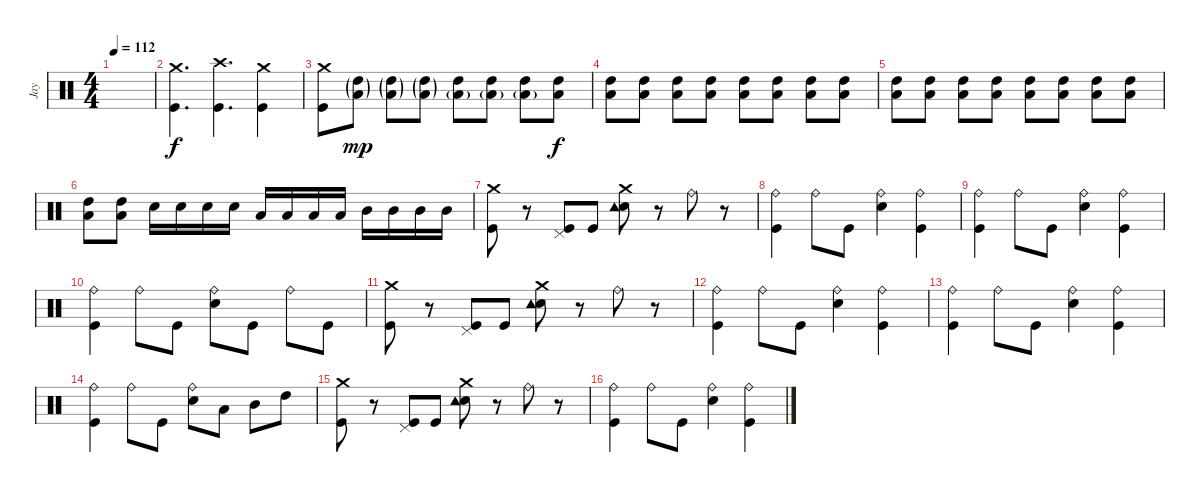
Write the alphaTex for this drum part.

\track ("Jay" "Jay") {instrument percussion}
\staff {score}
\articulation defaults
\ts (4 4)
\tempo 112
\clef neutral
\ks c
|
("Crash medium (hit)" "Kick (hit)").4{d} ("Crash high (hit)" "Kick (hit)").4{d} ("Crash medium (hit)" "Kick (hit)").4 |
("Crash medium (hit)" "Kick (hit)").8 ("High Tom (hit)"{g} "Low Tom (hit)"{g}).8{dy mp} ("High Tom (hit)"{g} "Low Tom (hit)"{g}).8 ("High Tom (hit)"{g} "Low Tom (hit)"{g}).8 ("High Tom (hit)" "Low Tom (hit)"{g}).8 ("High Tom (hit)" "Low Tom (hit)"{g}).8 ("High Tom (hit)" "Low Tom (hit)"{g}).8 ("High Tom (hit)" "Low Tom (hit)").8{dy f} |
("High Tom (hit)" "Low Tom (hit)").8 ("High Tom (hit)" "Low Tom (hit)").8 ("High Tom (hit)" "Low Tom (hit)").8 ("High Tom (hit)" "Low Tom (hit)").8 ("High Tom (hit)" "Low Tom (hit)").8 ("High Tom (hit)" "Low Tom (hit)").8 ("High Tom (hit)" "Low Tom (hit)").8 ("High Tom (hit)" "Low Tom (hit)").8 |
("High Tom (hit)" "Low Tom (hit)").8 ("High Tom (hit)" "Low Tom (hit)").8 ("High Tom (hit)" "Low Tom (hit)").8 ("High Tom (hit)" "Low Tom (hit)").8 ("High Tom (hit)" "Low Tom (hit)").8 ("High Tom (hit)" "Low Tom (hit)").8 ("High Tom (hit)" "Low Tom (hit)").8 ("High Tom (hit)" "Low Tom (hit)").8 |
("High Tom (hit)" "Low Tom (hit)").8 ("High Tom (hit)" "Low Tom (hit)").8 "Electric Snare (hit)".16 "Electric Snare (hit)".16 "Electric Snare (hit)".16 "Electric Snare (hit)".16 "Low Tom (hit)".16 "Low Tom (hit)".16 "Low Tom (hit)".16 "Low Tom (hit)".16 "Mid Tom (hit)".16 "Mid Tom (hit)".16 "Mid Tom (hit)".16 "Mid Tom (hit)".16 |
("Crash medium (hit)" "Kick (hit)").8 r.8 ("Pedal Hi-Hat (hit)" "Kick (hit)").8 "Kick (hit)".8 ("Crash medium (hit)" "Electric Snare (hit)" "Tambourine (hit)").8 r.8 "Ride (bell)".8 r.8 |
("Ride (bell)" "Kick (hit)").4 "Ride (bell)".8 "Kick (hit)".8 ("Ride (bell)" "Electric Snare (hit)").4 ("Ride (bell)" "Kick (hit)").4 |
("Ride (bell)" "Kick (hit)").4 "Ride (bell)".8 "Kick (hit)".8 ("Ride (bell)" "Electric Snare (hit)").4 ("Ride (bell)" "Kick (hit)").4 |
("Ride (bell)" "Kick (hit)").4 "Ride (bell)".8 "Kick (hit)".8 ("Ride (bell)" "Electric Snare (hit)").8 "Kick (hit)".8 "Ride (bell)".8 "Kick (hit)".8 |
("Crash medium (hit)" "Kick (hit)").8 r.8 ("Pedal Hi-Hat (hit)" "Kick (hit)").8 "Kick (hit)".8 ("Crash medium (hit)" "Electric Snare (hit)" "Tambourine (hit)").8 r.8 "Ride (bell)".8 r.8 |
("Ride (bell)" "Kick (hit)").4 "Ride (bell)".8 "Kick (hit)".8 ("Ride (bell)" "Electric Snare (hit)").4 ("Ride (bell)" "Kick (hit)").4 |
("Ride (bell)" "Kick (hit)").4 "Ride (bell)".8 "Kick (hit)".8 ("Ride (bell)" "Electric Snare (hit)").4 ("Ride (bell)" "Kick (hit)").4 |
("Ride (bell)" "Kick (hit)").4 "Ride (bell)".8 "Kick (hit)".8 ("Ride (bell)" "Electric Snare (hit)").8 "Low Tom (hit)".8 "Mid Tom (hit)".8 "High Tom (hit)".8 |
("Crash medium (hit)" "Kick (hit)").8 r.8 ("Pedal Hi-Hat (hit)" "Kick (hit)").8 "Kick (hit)".8 ("Crash medium (hit)" "Electric Snare (hit)" "Tambourine (hit)").8 r.8 "Ride (bell)".8 r.8 |
("Ride (bell)" "Kick (hit)").4 "Ride (bell)".8 "Kick (hit)".8 ("Ride (bell)" "Electric Snare (hit)").4 ("Ride (bell)" "Kick (hit)").4
